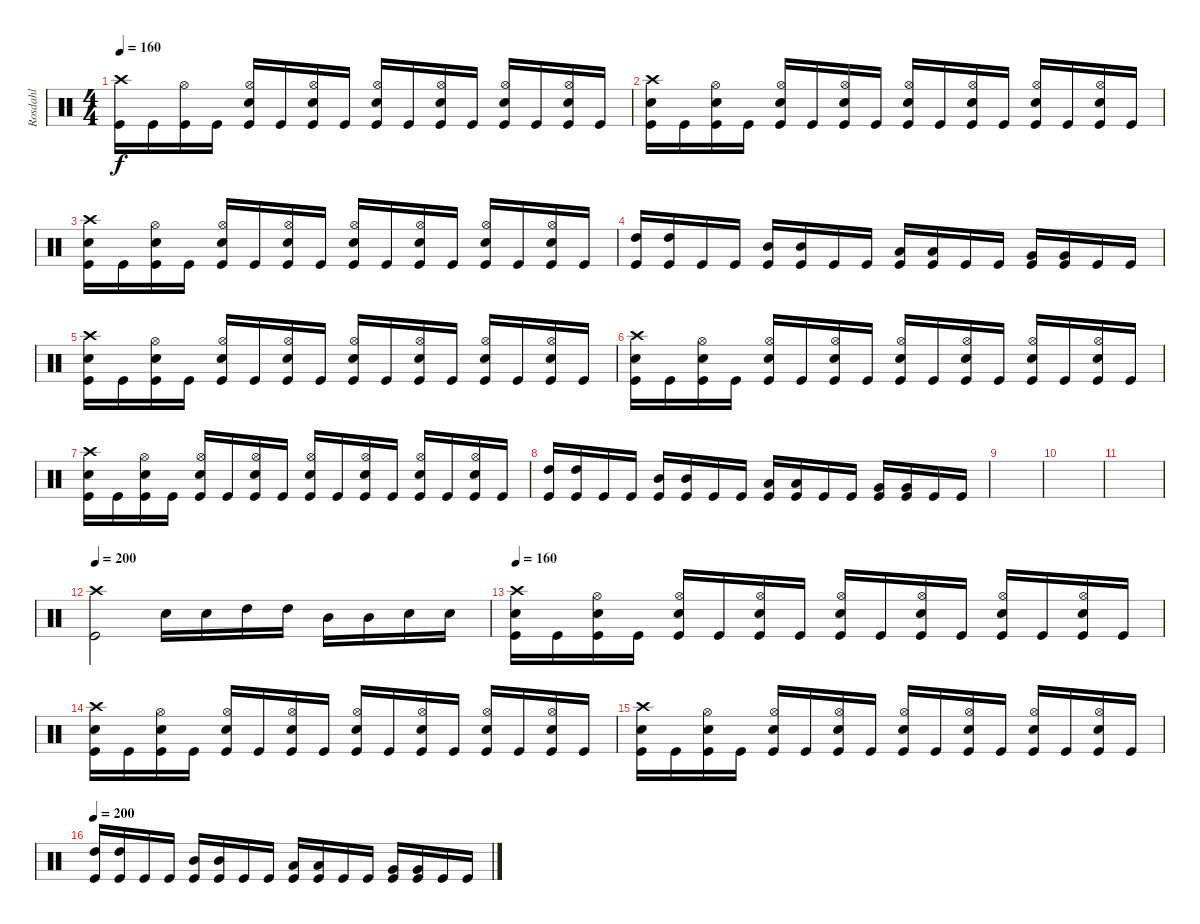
\track ("Rosdahl" "Rosdahl") {instrument percussion}
\staff {score}
\articulation defaults
\ts (4 4)
\tempo 160
\clef neutral
\ks c
("Crash high (hit)" "Kick (hit)").16{dy f} "Kick (hit)".16 ("Hi-Hat (open)" "Kick (hit)").16 "Kick (hit)".16 ("Hi-Hat (open)" "Electric Snare (hit)" "Kick (hit)").16 "Kick (hit)".16 ("Hi-Hat (open)" "Electric Snare (hit)" "Kick (hit)").16 "Kick (hit)".16 ("Hi-Hat (open)" "Electric Snare (hit)" "Kick (hit)").16 "Kick (hit)".16 ("Hi-Hat (open)" "Electric Snare (hit)" "Kick (hit)").16 "Kick (hit)".16 ("Hi-Hat (open)" "Electric Snare (hit)" "Kick (hit)").16 "Kick (hit)".16 ("Hi-Hat (open)" "Electric Snare (hit)" "Kick (hit)").16 "Kick (hit)".16 |
("Crash high (hit)" "Electric Snare (hit)" "Kick (hit)").16 "Kick (hit)".16 ("Hi-Hat (open)" "Electric Snare (hit)" "Kick (hit)").16 "Kick (hit)".16 ("Hi-Hat (open)" "Electric Snare (hit)" "Kick (hit)").16 "Kick (hit)".16 ("Hi-Hat (open)" "Electric Snare (hit)" "Kick (hit)").16 "Kick (hit)".16 ("Hi-Hat (open)" "Electric Snare (hit)" "Kick (hit)").16 "Kick (hit)".16 ("Hi-Hat (open)" "Electric Snare (hit)" "Kick (hit)").16 "Kick (hit)".16 ("Hi-Hat (open)" "Electric Snare (hit)" "Kick (hit)").16 "Kick (hit)".16 ("Hi-Hat (open)" "Electric Snare (hit)" "Kick (hit)").16 "Kick (hit)".16 |
("Crash high (hit)" "Electric Snare (hit)" "Kick (hit)").16 "Kick (hit)".16 ("Hi-Hat (open)" "Electric Snare (hit)" "Kick (hit)").16 "Kick (hit)".16 ("Hi-Hat (open)" "Electric Snare (hit)" "Kick (hit)").16 "Kick (hit)".16 ("Hi-Hat (open)" "Electric Snare (hit)" "Kick (hit)").16 "Kick (hit)".16 ("Hi-Hat (open)" "Electric Snare (hit)" "Kick (hit)").16 "Kick (hit)".16 ("Hi-Hat (open)" "Electric Snare (hit)" "Kick (hit)").16 "Kick (hit)".16 ("Hi-Hat (open)" "Electric Snare (hit)" "Kick (hit)").16 "Kick (hit)".16 ("Hi-Hat (open)" "Electric Snare (hit)" "Kick (hit)").16 "Kick (hit)".16 |
("High Tom (hit)" "Kick (hit)").16 ("High Tom (hit)" "Kick (hit)").16 "Kick (hit)".16 "Kick (hit)".16 ("Mid Tom (hit)" "Kick (hit)").16 ("Mid Tom (hit)" "Kick (hit)").16 "Kick (hit)".16 "Kick (hit)".16 ("Low Tom (hit)" "Kick (hit)").16 ("Low Tom (hit)" "Kick (hit)").16 "Kick (hit)".16 "Kick (hit)".16 ("Very Low Tom (hit)" "Kick (hit)").16 ("Very Low Tom (hit)" "Kick (hit)").16 "Kick (hit)".16 "Kick (hit)".16 |
("Crash high (hit)" "Electric Snare (hit)" "Kick (hit)").16 "Kick (hit)".16 ("Hi-Hat (open)" "Electric Snare (hit)" "Kick (hit)").16 "Kick (hit)".16 ("Hi-Hat (open)" "Electric Snare (hit)" "Kick (hit)").16 "Kick (hit)".16 ("Hi-Hat (open)" "Electric Snare (hit)" "Kick (hit)").16 "Kick (hit)".16 ("Hi-Hat (open)" "Electric Snare (hit)" "Kick (hit)").16 "Kick (hit)".16 ("Hi-Hat (open)" "Electric Snare (hit)" "Kick (hit)").16 "Kick (hit)".16 ("Hi-Hat (open)" "Electric Snare (hit)" "Kick (hit)").16 "Kick (hit)".16 ("Hi-Hat (open)" "Electric Snare (hit)" "Kick (hit)").16 "Kick (hit)".16 |
("Crash high (hit)" "Electric Snare (hit)" "Kick (hit)").16 "Kick (hit)".16 ("Hi-Hat (open)" "Electric Snare (hit)" "Kick (hit)").16 "Kick (hit)".16 ("Hi-Hat (open)" "Electric Snare (hit)" "Kick (hit)").16 "Kick (hit)".16 ("Hi-Hat (open)" "Electric Snare (hit)" "Kick (hit)").16 "Kick (hit)".16 ("Hi-Hat (open)" "Electric Snare (hit)" "Kick (hit)").16 "Kick (hit)".16 ("Hi-Hat (open)" "Electric Snare (hit)" "Kick (hit)").16 "Kick (hit)".16 ("Hi-Hat (open)" "Electric Snare (hit)" "Kick (hit)").16 "Kick (hit)".16 ("Hi-Hat (open)" "Electric Snare (hit)" "Kick (hit)").16 "Kick (hit)".16 |
("Crash high (hit)" "Electric Snare (hit)" "Kick (hit)").16 "Kick (hit)".16 ("Hi-Hat (open)" "Electric Snare (hit)" "Kick (hit)").16 "Kick (hit)".16 ("Hi-Hat (open)" "Electric Snare (hit)" "Kick (hit)").16 "Kick (hit)".16 ("Hi-Hat (open)" "Electric Snare (hit)" "Kick (hit)").16 "Kick (hit)".16 ("Hi-Hat (open)" "Electric Snare (hit)" "Kick (hit)").16 "Kick (hit)".16 ("Hi-Hat (open)" "Electric Snare (hit)" "Kick (hit)").16 "Kick (hit)".16 ("Hi-Hat (open)" "Electric Snare (hit)" "Kick (hit)").16 "Kick (hit)".16 ("Hi-Hat (open)" "Electric Snare (hit)" "Kick (hit)").16 "Kick (hit)".16 |
("High Tom (hit)" "Kick (hit)").16 ("High Tom (hit)" "Kick (hit)").16 "Kick (hit)".16 "Kick (hit)".16 ("Mid Tom (hit)" "Kick (hit)").16 ("Mid Tom (hit)" "Kick (hit)").16 "Kick (hit)".16 "Kick (hit)".16 ("Low Tom (hit)" "Kick (hit)").16 ("Low Tom (hit)" "Kick (hit)").16 "Kick (hit)".16 "Kick (hit)".16 ("Very Low Tom (hit)" "Kick (hit)").16 ("Very Low Tom (hit)" "Kick (hit)").16 "Kick (hit)".16 "Kick (hit)".16 |
|
|
|
\tempo 200
("Crash high (hit)" "Kick (hit)").2 "Electric Snare (hit)".16 "Electric Snare (hit)".16 "High Tom (hit)".16 "High Tom (hit)".16 "Mid Tom (hit)".16 "Mid Tom (hit)".16 "Electric Snare (hit)".16 "Electric Snare (hit)".16 |
\tempo 160
("Crash high (hit)" "Electric Snare (hit)" "Kick (hit)").16 "Kick (hit)".16 ("Hi-Hat (open)" "Electric Snare (hit)" "Kick (hit)").16 "Kick (hit)".16 ("Hi-Hat (open)" "Electric Snare (hit)" "Kick (hit)").16 "Kick (hit)".16 ("Hi-Hat (open)" "Electric Snare (hit)" "Kick (hit)").16 "Kick (hit)".16 ("Hi-Hat (open)" "Electric Snare (hit)" "Kick (hit)").16 "Kick (hit)".16 ("Hi-Hat (open)" "Electric Snare (hit)" "Kick (hit)").16 "Kick (hit)".16 ("Hi-Hat (open)" "Electric Snare (hit)" "Kick (hit)").16 "Kick (hit)".16 ("Hi-Hat (open)" "Electric Snare (hit)" "Kick (hit)").16 "Kick (hit)".16 |
("Crash high (hit)" "Electric Snare (hit)" "Kick (hit)").16 "Kick (hit)".16 ("Hi-Hat (open)" "Electric Snare (hit)" "Kick (hit)").16 "Kick (hit)".16 ("Hi-Hat (open)" "Electric Snare (hit)" "Kick (hit)").16 "Kick (hit)".16 ("Hi-Hat (open)" "Electric Snare (hit)" "Kick (hit)").16 "Kick (hit)".16 ("Hi-Hat (open)" "Electric Snare (hit)" "Kick (hit)").16 "Kick (hit)".16 ("Hi-Hat (open)" "Electric Snare (hit)" "Kick (hit)").16 "Kick (hit)".16 ("Hi-Hat (open)" "Electric Snare (hit)" "Kick (hit)").16 "Kick (hit)".16 ("Hi-Hat (open)" "Electric Snare (hit)" "Kick (hit)").16 "Kick (hit)".16 |
("Crash high (hit)" "Electric Snare (hit)" "Kick (hit)").16 "Kick (hit)".16 ("Hi-Hat (open)" "Electric Snare (hit)" "Kick (hit)").16 "Kick (hit)".16 ("Hi-Hat (open)" "Electric Snare (hit)" "Kick (hit)").16 "Kick (hit)".16 ("Hi-Hat (open)" "Electric Snare (hit)" "Kick (hit)").16 "Kick (hit)".16 ("Hi-Hat (open)" "Electric Snare (hit)" "Kick (hit)").16 "Kick (hit)".16 ("Hi-Hat (open)" "Electric Snare (hit)" "Kick (hit)").16 "Kick (hit)".16 ("Hi-Hat (open)" "Electric Snare (hit)" "Kick (hit)").16 "Kick (hit)".16 ("Hi-Hat (open)" "Electric Snare (hit)" "Kick (hit)").16 "Kick (hit)".16 |
\tempo 200
("High Tom (hit)" "Kick (hit)").16 ("High Tom (hit)" "Kick (hit)").16 "Kick (hit)".16 "Kick (hit)".16 ("Mid Tom (hit)" "Kick (hit)").16 ("Mid Tom (hit)" "Kick (hit)").16 "Kick (hit)".16 "Kick (hit)".16 ("Low Tom (hit)" "Kick (hit)").16 ("Low Tom (hit)" "Kick (hit)").16 "Kick (hit)".16 "Kick (hit)".16 ("Very Low Tom (hit)" "Kick (hit)").16 ("Very Low Tom (hit)" "Kick (hit)").16 "Kick (hit)".16 "Kick (hit)".16
